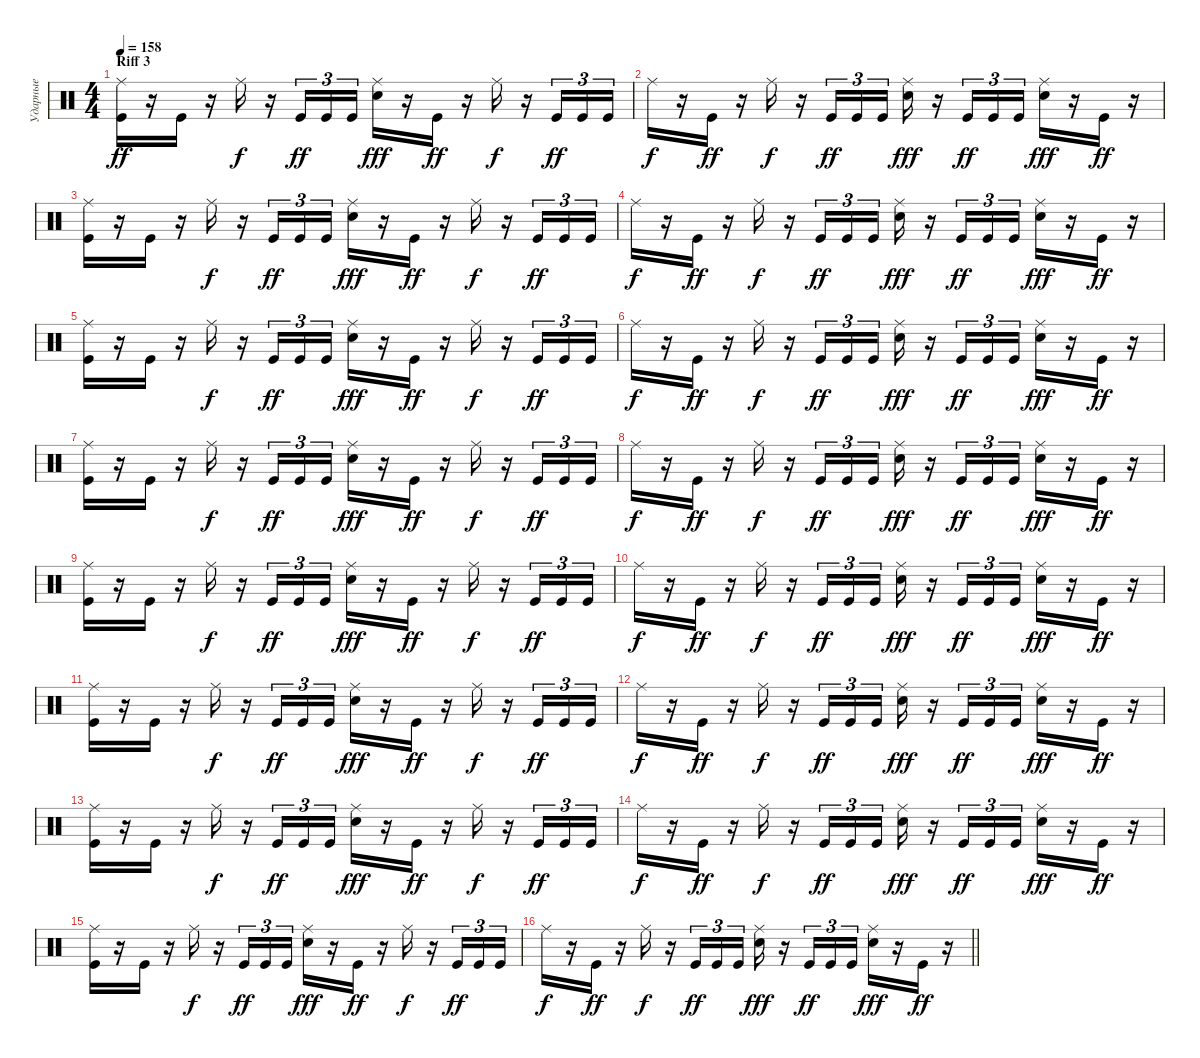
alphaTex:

\track ("Ударные" "Ударные") {instrument percussion}
\staff {score}
\articulation defaults
\ts (4 4)
\section ("" "Riff 3")
\tempo 158
\clef neutral
\ks c
("Ride (middle)" "Kick (hit)").16{dy ff} r.16 "Kick (hit)".16 r.16 "Ride (middle)".16{dy f} r.16 "Kick (hit)".16{tu (3 2) dy ff} "Kick (hit)".16{tu (3 2)} "Kick (hit)".16{tu (3 2)} ("Ride (middle)" "Snare (hit) 2").16{dy fff} r.16 "Kick (hit)".16{dy ff} r.16 "Ride (middle)".16{dy f} r.16 "Kick (hit)".16{tu (3 2) dy ff} "Kick (hit)".16{tu (3 2)} "Kick (hit)".16{tu (3 2)} |
"Ride (middle)".16{dy f} r.16 "Kick (hit)".16{dy ff} r.16 "Ride (middle)".16{dy f} r.16 "Kick (hit)".16{tu (3 2) dy ff} "Kick (hit)".16{tu (3 2)} "Kick (hit)".16{tu (3 2)} ("Ride (middle)" "Snare (hit) 2").16{dy fff} r.16 "Kick (hit)".16{tu (3 2) dy ff} "Kick (hit)".16{tu (3 2)} "Kick (hit)".16{tu (3 2)} ("Ride (middle)" "Snare (hit) 2").16{dy fff} r.16 "Kick (hit)".16{dy ff} r.16 |
("Ride (middle)" "Kick (hit)").16 r.16 "Kick (hit)".16 r.16 "Ride (middle)".16{dy f} r.16 "Kick (hit)".16{tu (3 2) dy ff} "Kick (hit)".16{tu (3 2)} "Kick (hit)".16{tu (3 2)} ("Ride (middle)" "Snare (hit) 2").16{dy fff} r.16 "Kick (hit)".16{dy ff} r.16 "Ride (middle)".16{dy f} r.16 "Kick (hit)".16{tu (3 2) dy ff} "Kick (hit)".16{tu (3 2)} "Kick (hit)".16{tu (3 2)} |
"Ride (middle)".16{dy f} r.16 "Kick (hit)".16{dy ff} r.16 "Ride (middle)".16{dy f} r.16 "Kick (hit)".16{tu (3 2) dy ff} "Kick (hit)".16{tu (3 2)} "Kick (hit)".16{tu (3 2)} ("Ride (middle)" "Snare (hit) 2").16{dy fff} r.16 "Kick (hit)".16{tu (3 2) dy ff} "Kick (hit)".16{tu (3 2)} "Kick (hit)".16{tu (3 2)} ("Ride (middle)" "Snare (hit) 2").16{dy fff} r.16 "Kick (hit)".16{dy ff} r.16 |
("Ride (middle)" "Kick (hit)").16 r.16 "Kick (hit)".16 r.16 "Ride (middle)".16{dy f} r.16 "Kick (hit)".16{tu (3 2) dy ff} "Kick (hit)".16{tu (3 2)} "Kick (hit)".16{tu (3 2)} ("Ride (middle)" "Snare (hit) 2").16{dy fff} r.16 "Kick (hit)".16{dy ff} r.16 "Ride (middle)".16{dy f} r.16 "Kick (hit)".16{tu (3 2) dy ff} "Kick (hit)".16{tu (3 2)} "Kick (hit)".16{tu (3 2)} |
"Ride (middle)".16{dy f} r.16 "Kick (hit)".16{dy ff} r.16 "Ride (middle)".16{dy f} r.16 "Kick (hit)".16{tu (3 2) dy ff} "Kick (hit)".16{tu (3 2)} "Kick (hit)".16{tu (3 2)} ("Ride (middle)" "Snare (hit) 2").16{dy fff} r.16 "Kick (hit)".16{tu (3 2) dy ff} "Kick (hit)".16{tu (3 2)} "Kick (hit)".16{tu (3 2)} ("Ride (middle)" "Snare (hit) 2").16{dy fff} r.16 "Kick (hit)".16{dy ff} r.16 |
("Ride (middle)" "Kick (hit)").16 r.16 "Kick (hit)".16 r.16 "Ride (middle)".16{dy f} r.16 "Kick (hit)".16{tu (3 2) dy ff} "Kick (hit)".16{tu (3 2)} "Kick (hit)".16{tu (3 2)} ("Ride (middle)" "Snare (hit) 2").16{dy fff} r.16 "Kick (hit)".16{dy ff} r.16 "Ride (middle)".16{dy f} r.16 "Kick (hit)".16{tu (3 2) dy ff} "Kick (hit)".16{tu (3 2)} "Kick (hit)".16{tu (3 2)} |
"Ride (middle)".16{dy f} r.16 "Kick (hit)".16{dy ff} r.16 "Ride (middle)".16{dy f} r.16 "Kick (hit)".16{tu (3 2) dy ff} "Kick (hit)".16{tu (3 2)} "Kick (hit)".16{tu (3 2)} ("Ride (middle)" "Snare (hit) 2").16{dy fff} r.16 "Kick (hit)".16{tu (3 2) dy ff} "Kick (hit)".16{tu (3 2)} "Kick (hit)".16{tu (3 2)} ("Ride (middle)" "Snare (hit) 2").16{dy fff} r.16 "Kick (hit)".16{dy ff} r.16 |
("Ride (middle)" "Kick (hit)").16 r.16 "Kick (hit)".16 r.16 "Ride (middle)".16{dy f} r.16 "Kick (hit)".16{tu (3 2) dy ff} "Kick (hit)".16{tu (3 2)} "Kick (hit)".16{tu (3 2)} ("Ride (middle)" "Snare (hit) 2").16{dy fff} r.16 "Kick (hit)".16{dy ff} r.16 "Ride (middle)".16{dy f} r.16 "Kick (hit)".16{tu (3 2) dy ff} "Kick (hit)".16{tu (3 2)} "Kick (hit)".16{tu (3 2)} |
"Ride (middle)".16{dy f} r.16 "Kick (hit)".16{dy ff} r.16 "Ride (middle)".16{dy f} r.16 "Kick (hit)".16{tu (3 2) dy ff} "Kick (hit)".16{tu (3 2)} "Kick (hit)".16{tu (3 2)} ("Ride (middle)" "Snare (hit) 2").16{dy fff} r.16 "Kick (hit)".16{tu (3 2) dy ff} "Kick (hit)".16{tu (3 2)} "Kick (hit)".16{tu (3 2)} ("Ride (middle)" "Snare (hit) 2").16{dy fff} r.16 "Kick (hit)".16{dy ff} r.16 |
("Ride (middle)" "Kick (hit)").16 r.16 "Kick (hit)".16 r.16 "Ride (middle)".16{dy f} r.16 "Kick (hit)".16{tu (3 2) dy ff} "Kick (hit)".16{tu (3 2)} "Kick (hit)".16{tu (3 2)} ("Ride (middle)" "Snare (hit) 2").16{dy fff} r.16 "Kick (hit)".16{dy ff} r.16 "Ride (middle)".16{dy f} r.16 "Kick (hit)".16{tu (3 2) dy ff} "Kick (hit)".16{tu (3 2)} "Kick (hit)".16{tu (3 2)} |
"Ride (middle)".16{dy f} r.16 "Kick (hit)".16{dy ff} r.16 "Ride (middle)".16{dy f} r.16 "Kick (hit)".16{tu (3 2) dy ff} "Kick (hit)".16{tu (3 2)} "Kick (hit)".16{tu (3 2)} ("Ride (middle)" "Snare (hit) 2").16{dy fff} r.16 "Kick (hit)".16{tu (3 2) dy ff} "Kick (hit)".16{tu (3 2)} "Kick (hit)".16{tu (3 2)} ("Ride (middle)" "Snare (hit) 2").16{dy fff} r.16 "Kick (hit)".16{dy ff} r.16 |
("Ride (middle)" "Kick (hit)").16 r.16 "Kick (hit)".16 r.16 "Ride (middle)".16{dy f} r.16 "Kick (hit)".16{tu (3 2) dy ff} "Kick (hit)".16{tu (3 2)} "Kick (hit)".16{tu (3 2)} ("Ride (middle)" "Snare (hit) 2").16{dy fff} r.16 "Kick (hit)".16{dy ff} r.16 "Ride (middle)".16{dy f} r.16 "Kick (hit)".16{tu (3 2) dy ff} "Kick (hit)".16{tu (3 2)} "Kick (hit)".16{tu (3 2)} |
"Ride (middle)".16{dy f} r.16 "Kick (hit)".16{dy ff} r.16 "Ride (middle)".16{dy f} r.16 "Kick (hit)".16{tu (3 2) dy ff} "Kick (hit)".16{tu (3 2)} "Kick (hit)".16{tu (3 2)} ("Ride (middle)" "Snare (hit) 2").16{dy fff} r.16 "Kick (hit)".16{tu (3 2) dy ff} "Kick (hit)".16{tu (3 2)} "Kick (hit)".16{tu (3 2)} ("Ride (middle)" "Snare (hit) 2").16{dy fff} r.16 "Kick (hit)".16{dy ff} r.16 |
("Ride (middle)" "Kick (hit)").16 r.16 "Kick (hit)".16 r.16 "Ride (middle)".16{dy f} r.16 "Kick (hit)".16{tu (3 2) dy ff} "Kick (hit)".16{tu (3 2)} "Kick (hit)".16{tu (3 2)} ("Ride (middle)" "Snare (hit) 2").16{dy fff} r.16 "Kick (hit)".16{dy ff} r.16 "Ride (middle)".16{dy f} r.16 "Kick (hit)".16{tu (3 2) dy ff} "Kick (hit)".16{tu (3 2)} "Kick (hit)".16{tu (3 2)} |
\barLineRight lightlight "Ride (middle)".16{dy f}
r.16 "Kick (hit)".16{dy ff} r.16 "Ride (middle)".16{dy f} r.16 "Kick (hit)".16{tu (3 2) dy ff} "Kick (hit)".16{tu (3 2)} "Kick (hit)".16{tu (3 2)} ("Ride (middle)" "Snare (hit) 2").16{dy fff} r.16 "Kick (hit)".16{tu (3 2) dy ff} "Kick (hit)".16{tu (3 2)} "Kick (hit)".16{tu (3 2)} ("Ride (middle)" "Snare (hit) 2").16{dy fff} r.16 "Kick (hit)".16{dy ff} r.16
